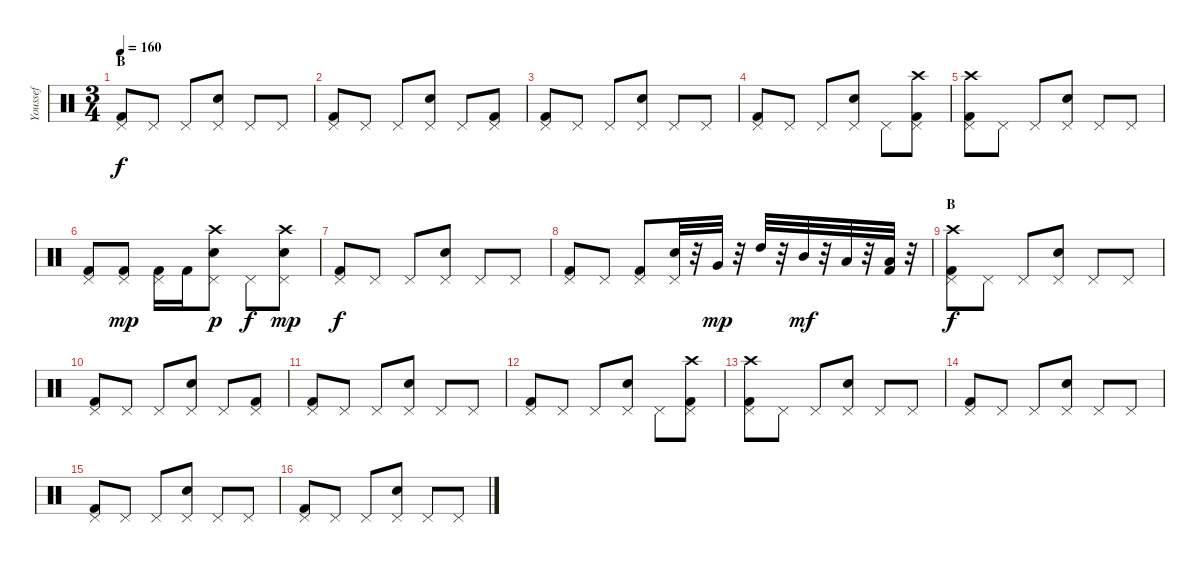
\track ("Youssef" "Youssef") {instrument percussion}
\staff {score}
\articulation defaults
\ts (3 4)
\section ("" "B")
\tempo 160
\clef neutral
\ks c
("Kick (hit) 2" "Pedal Hi-Hat (hit)").8{dy f} "Pedal Hi-Hat (hit)".8 "Pedal Hi-Hat (hit)".8 ("Electric Snare (hit)" "Pedal Hi-Hat (hit)").8 "Pedal Hi-Hat (hit)".8 "Pedal Hi-Hat (hit)".8 |
("Kick (hit) 2" "Pedal Hi-Hat (hit)").8 "Pedal Hi-Hat (hit)".8 "Pedal Hi-Hat (hit)".8 ("Electric Snare (hit)" "Pedal Hi-Hat (hit)").8 "Pedal Hi-Hat (hit)".8 ("Kick (hit) 2" "Pedal Hi-Hat (hit)").8 |
("Kick (hit) 2" "Pedal Hi-Hat (hit)").8 "Pedal Hi-Hat (hit)".8 "Pedal Hi-Hat (hit)".8 ("Electric Snare (hit)" "Pedal Hi-Hat (hit)").8 "Pedal Hi-Hat (hit)".8 "Pedal Hi-Hat (hit)".8 |
("Kick (hit) 2" "Pedal Hi-Hat (hit)").8 "Pedal Hi-Hat (hit)".8 "Pedal Hi-Hat (hit)".8 ("Electric Snare (hit)" "Pedal Hi-Hat (hit)").8 "Pedal Hi-Hat (hit)".8 ("Kick (hit) 2" "Crash high (hit)" "Pedal Hi-Hat (hit)").8 |
("Kick (hit) 2" "Crash high (hit)" "Pedal Hi-Hat (hit)").8 "Pedal Hi-Hat (hit)".8 "Pedal Hi-Hat (hit)".8 ("Electric Snare (hit)" "Pedal Hi-Hat (hit)").8 "Pedal Hi-Hat (hit)".8 "Pedal Hi-Hat (hit)".8 |
("Kick (hit) 2" "Pedal Hi-Hat (hit)").8 ("Kick (hit) 2" "Pedal Hi-Hat (hit)").8{dy mp} ("Kick (hit) 2" "Pedal Hi-Hat (hit)").16 "Kick (hit) 2".16 ("Crash high (hit)" "Electric Snare (hit)" "Pedal Hi-Hat (hit)").8{dy p} "Pedal Hi-Hat (hit)".8{dy f} ("Crash high (hit)" "Electric Snare (hit)" "Pedal Hi-Hat (hit)").8{dy mp} |
("Kick (hit) 2" "Pedal Hi-Hat (hit)").8{dy f} "Pedal Hi-Hat (hit)".8 "Pedal Hi-Hat (hit)".8 ("Electric Snare (hit)" "Pedal Hi-Hat (hit)").8 "Pedal Hi-Hat (hit)".8 "Pedal Hi-Hat (hit)".8 |
("Kick (hit) 2" "Pedal Hi-Hat (hit)").8 "Pedal Hi-Hat (hit)".8 ("Kick (hit) 2" "Pedal Hi-Hat (hit)").8 ("Electric Snare (hit)" "Pedal Hi-Hat (hit)").32 r.32 "Very Low Tom (hit)".32{dy mp} r.32 "High Tom (hit)".32 r.32 "Mid Tom (hit)".32{dy mf} r.32 "Low Tom (hit)".32 r.32 ("Kick (hit) 2" "Low Tom (hit)").32 r.32 |
\section ("" "B")
("Kick (hit) 2" "Crash high (hit)" "Pedal Hi-Hat (hit)").8{dy f} "Pedal Hi-Hat (hit)".8 "Pedal Hi-Hat (hit)".8 ("Electric Snare (hit)" "Pedal Hi-Hat (hit)").8 "Pedal Hi-Hat (hit)".8 "Pedal Hi-Hat (hit)".8 |
("Kick (hit) 2" "Pedal Hi-Hat (hit)").8 "Pedal Hi-Hat (hit)".8 "Pedal Hi-Hat (hit)".8 ("Electric Snare (hit)" "Pedal Hi-Hat (hit)").8 "Pedal Hi-Hat (hit)".8 ("Kick (hit) 2" "Pedal Hi-Hat (hit)").8 |
("Kick (hit) 2" "Pedal Hi-Hat (hit)").8 "Pedal Hi-Hat (hit)".8 "Pedal Hi-Hat (hit)".8 ("Electric Snare (hit)" "Pedal Hi-Hat (hit)").8 "Pedal Hi-Hat (hit)".8 "Pedal Hi-Hat (hit)".8 |
("Kick (hit) 2" "Pedal Hi-Hat (hit)").8 "Pedal Hi-Hat (hit)".8 "Pedal Hi-Hat (hit)".8 ("Electric Snare (hit)" "Pedal Hi-Hat (hit)").8 "Pedal Hi-Hat (hit)".8 ("Kick (hit) 2" "Crash high (hit)" "Pedal Hi-Hat (hit)").8 |
("Kick (hit) 2" "Crash high (hit)" "Pedal Hi-Hat (hit)").8 "Pedal Hi-Hat (hit)".8 "Pedal Hi-Hat (hit)".8 ("Electric Snare (hit)" "Pedal Hi-Hat (hit)").8 "Pedal Hi-Hat (hit)".8 "Pedal Hi-Hat (hit)".8 |
("Kick (hit) 2" "Pedal Hi-Hat (hit)").8 "Pedal Hi-Hat (hit)".8 "Pedal Hi-Hat (hit)".8 ("Electric Snare (hit)" "Pedal Hi-Hat (hit)").8 "Pedal Hi-Hat (hit)".8 "Pedal Hi-Hat (hit)".8 |
("Kick (hit) 2" "Pedal Hi-Hat (hit)").8 "Pedal Hi-Hat (hit)".8 "Pedal Hi-Hat (hit)".8 ("Electric Snare (hit)" "Pedal Hi-Hat (hit)").8 "Pedal Hi-Hat (hit)".8 "Pedal Hi-Hat (hit)".8 |
("Kick (hit) 2" "Pedal Hi-Hat (hit)").8 "Pedal Hi-Hat (hit)".8 "Pedal Hi-Hat (hit)".8 ("Electric Snare (hit)" "Pedal Hi-Hat (hit)").8 "Pedal Hi-Hat (hit)".8 "Pedal Hi-Hat (hit)".8
